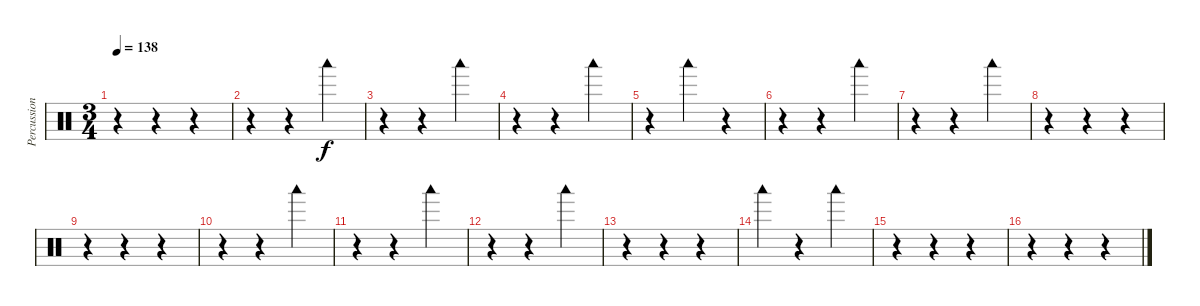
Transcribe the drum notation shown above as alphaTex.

\track ("Percussions" "Percussion") {instrument percussion}
\staff {score}
\articulation defaults
\ts (3 4)
\tempo 138
\clef neutral
\ks c
r.4{dy f} r.4 r.4 |
r.4 r.4 "Woodblock low (hit)".4 |
r.4 r.4 "Woodblock low (hit)".4 |
r.4 r.4 "Woodblock low (hit)".4 |
r.4 "Woodblock low (hit)".4 r.4 |
r.4 r.4 "Woodblock low (hit)".4 |
r.4 r.4 "Woodblock low (hit)".4 |
r.4 r.4 r.4 |
r.4 r.4 r.4 |
r.4 r.4 "Woodblock low (hit)".4 |
r.4 r.4 "Woodblock low (hit)".4 |
r.4 r.4 "Woodblock low (hit)".4 |
r.4 r.4 r.4 |
"Woodblock low (hit)".4 r.4 "Woodblock low (hit)".4 |
r.4 r.4 r.4 |
r.4 r.4 r.4
